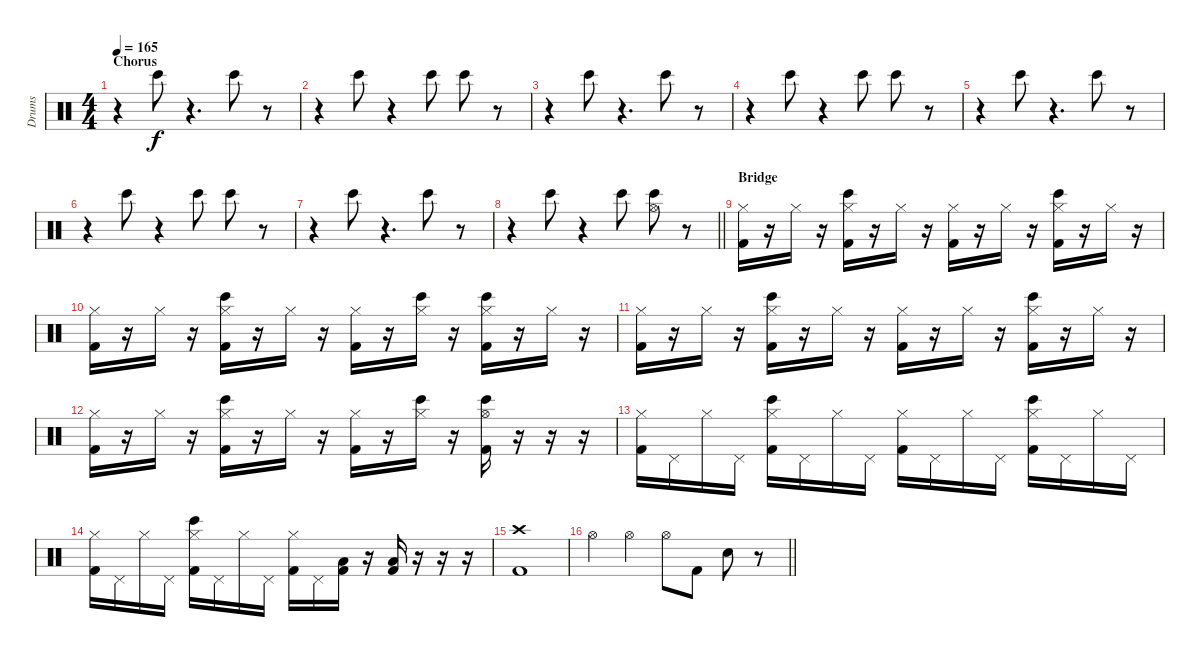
\track ("Drums" "Drums") {instrument percussion}
\staff {score}
\articulation defaults
\ts (4 4)
\section ("" "Chorus")
\tempo 165
\clef neutral
\ks c
r.4{dy f} "Bongo High (hit)".8 r.4{d} "Bongo High (hit)".8 r.8 |
r.4 "Bongo High (hit)".8 r.4 "Bongo High (hit)".8 "Bongo High (hit)".8 r.8 |
r.4 "Bongo High (hit)".8 r.4{d} "Bongo High (hit)".8 r.8 |
r.4 "Bongo High (hit)".8 r.4 "Bongo High (hit)".8 "Bongo High (hit)".8 r.8 |
r.4 "Bongo High (hit)".8 r.4{d} "Bongo High (hit)".8 r.8 |
r.4 "Bongo High (hit)".8 r.4 "Bongo High (hit)".8 "Bongo High (hit)".8 r.8 |
r.4 "Bongo High (hit)".8 r.4{d} "Bongo High (hit)".8 r.8 |
\barLineRight lightlight
r.4 "Bongo High (hit)".8 r.4 "Bongo High (hit)".8 ("Bongo High (hit)" "Hi-Hat (open)").8 r.8 |
\section ("" "Bridge")
("Hi-Hat (closed)" "Kick (hit) 2").16 r.16 "Hi-Hat (closed)".16 r.16 ("Hi-Hat (closed)" "Kick (hit) 2" "Bongo High (hit)").16 r.16 "Hi-Hat (closed)".16 r.16 ("Hi-Hat (closed)" "Kick (hit) 2").16 r.16 "Hi-Hat (closed)".16 r.16 ("Hi-Hat (closed)" "Kick (hit) 2" "Bongo High (hit)").16 r.16 "Hi-Hat (closed)".16 r.16 |
("Hi-Hat (closed)" "Kick (hit) 2").16 r.16 "Hi-Hat (closed)".16 r.16 ("Hi-Hat (closed)" "Kick (hit) 2" "Bongo High (hit)").16 r.16 "Hi-Hat (closed)".16 r.16 ("Hi-Hat (closed)" "Kick (hit) 2").16 r.16 ("Hi-Hat (closed)" "Bongo High (hit)").16 r.16 ("Hi-Hat (closed)" "Kick (hit) 2" "Bongo High (hit)").16 r.16 "Hi-Hat (closed)".16 r.16 |
("Hi-Hat (closed)" "Kick (hit) 2").16 r.16 "Hi-Hat (closed)".16 r.16 ("Hi-Hat (closed)" "Kick (hit) 2" "Bongo High (hit)").16 r.16 "Hi-Hat (closed)".16 r.16 ("Hi-Hat (closed)" "Kick (hit) 2").16 r.16 "Hi-Hat (closed)".16 r.16 ("Hi-Hat (closed)" "Kick (hit) 2" "Bongo High (hit)").16 r.16 "Hi-Hat (closed)".16 r.16 |
("Hi-Hat (closed)" "Kick (hit) 2").16 r.16 "Hi-Hat (closed)".16 r.16 ("Hi-Hat (closed)" "Kick (hit) 2" "Bongo High (hit)").16 r.16 "Hi-Hat (closed)".16 r.16 ("Hi-Hat (closed)" "Kick (hit) 2").16 r.16 ("Hi-Hat (closed)" "Bongo High (hit)").16 r.16 ("Hi-Hat (open)" "Kick (hit) 2" "Bongo High (hit)").16 r.16 r.16 r.16 |
("Hi-Hat (closed)" "Kick (hit) 2").16 "Pedal Hi-Hat (hit)".16 "Hi-Hat (closed)".16 "Pedal Hi-Hat (hit)".16 ("Hi-Hat (closed)" "Kick (hit) 2" "Bongo High (hit)").16 "Pedal Hi-Hat (hit)".16 "Hi-Hat (closed)".16 "Pedal Hi-Hat (hit)".16 ("Hi-Hat (closed)" "Kick (hit) 2").16 "Pedal Hi-Hat (hit)".16 "Hi-Hat (closed)".16 "Pedal Hi-Hat (hit)".16 ("Hi-Hat (closed)" "Kick (hit) 2" "Bongo High (hit)").16 "Pedal Hi-Hat (hit)".16 "Hi-Hat (closed)".16 "Pedal Hi-Hat (hit)".16 |
("Hi-Hat (closed)" "Kick (hit) 2").16 "Pedal Hi-Hat (hit)".16 "Hi-Hat (closed)".16 "Pedal Hi-Hat (hit)".16 ("Hi-Hat (closed)" "Kick (hit) 2" "Bongo High (hit)").16 "Pedal Hi-Hat (hit)".16 "Hi-Hat (closed)".16 "Pedal Hi-Hat (hit)".16 ("Hi-Hat (closed)" "Kick (hit) 2").16 "Pedal Hi-Hat (hit)".16 ("Kick (hit) 2" "Low Floor Tom (hit)").16 r.16 ("Kick (hit) 2" "Low Floor Tom (hit)").16 r.16 r.16 r.16 |
("Kick (hit) 2" "Crash high (hit)").1 |
\barLineRight lightlight "Hi-Hat (open)".4 "Hi-Hat (open)".4 "Hi-Hat (open)".8 "Kick (hit) 2".8 "Electric Snare (hit)".8
r.8
